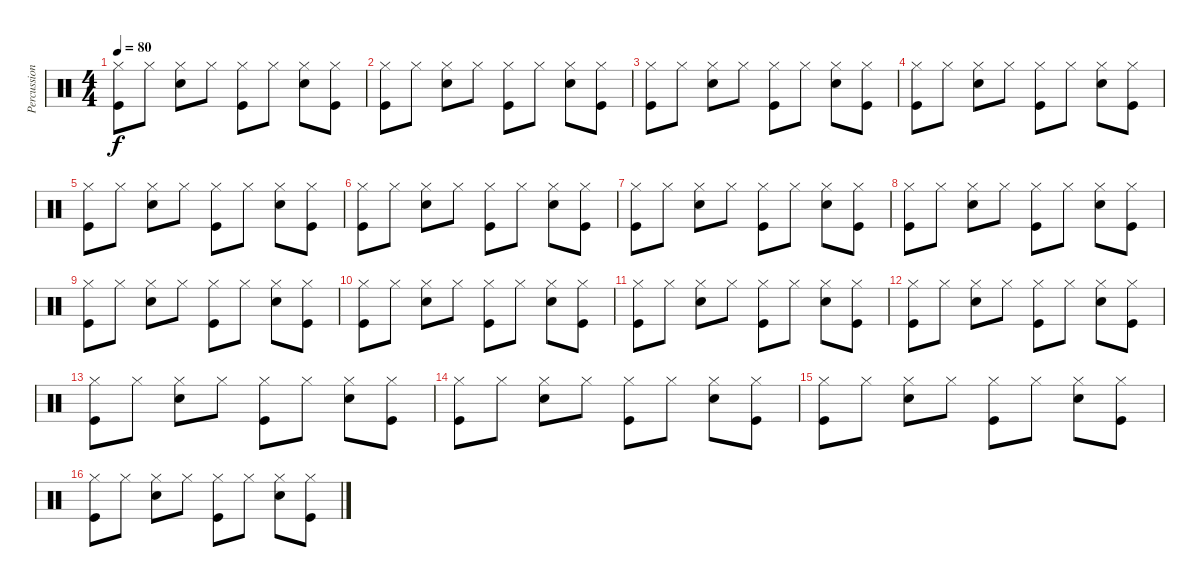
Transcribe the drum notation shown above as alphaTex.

\track ("Percussions" "Percussion") {instrument percussion}
\staff {score}
\articulation defaults
\ts (4 4)
\tempo 80
\clef neutral
\ks c
("Hi-Hat (closed)" "Kick (hit)").8{dy f} "Hi-Hat (closed)".8 ("Hi-Hat (closed)" "Snare (hit) 2").8 "Hi-Hat (closed)".8 ("Hi-Hat (closed)" "Kick (hit)").8 "Hi-Hat (closed)".8 ("Hi-Hat (closed)" "Snare (hit) 2").8 ("Hi-Hat (closed)" "Kick (hit)").8 |
("Hi-Hat (closed)" "Kick (hit)").8 "Hi-Hat (closed)".8 ("Hi-Hat (closed)" "Snare (hit) 2").8 "Hi-Hat (closed)".8 ("Hi-Hat (closed)" "Kick (hit)").8 "Hi-Hat (closed)".8 ("Hi-Hat (closed)" "Snare (hit) 2").8 ("Hi-Hat (closed)" "Kick (hit)").8 |
("Hi-Hat (closed)" "Kick (hit)").8 "Hi-Hat (closed)".8 ("Hi-Hat (closed)" "Snare (hit) 2").8 "Hi-Hat (closed)".8 ("Hi-Hat (closed)" "Kick (hit)").8 "Hi-Hat (closed)".8 ("Hi-Hat (closed)" "Snare (hit) 2").8 ("Hi-Hat (closed)" "Kick (hit)").8 |
("Hi-Hat (closed)" "Kick (hit)").8 "Hi-Hat (closed)".8 ("Hi-Hat (closed)" "Snare (hit) 2").8 "Hi-Hat (closed)".8 ("Hi-Hat (closed)" "Kick (hit)").8 "Hi-Hat (closed)".8 ("Hi-Hat (closed)" "Snare (hit) 2").8 ("Hi-Hat (closed)" "Kick (hit)").8 |
("Hi-Hat (closed)" "Kick (hit)").8 "Hi-Hat (closed)".8 ("Hi-Hat (closed)" "Snare (hit) 2").8 "Hi-Hat (closed)".8 ("Hi-Hat (closed)" "Kick (hit)").8 "Hi-Hat (closed)".8 ("Hi-Hat (closed)" "Snare (hit) 2").8 ("Hi-Hat (closed)" "Kick (hit)").8 |
("Hi-Hat (closed)" "Kick (hit)").8 "Hi-Hat (closed)".8 ("Hi-Hat (closed)" "Snare (hit) 2").8 "Hi-Hat (closed)".8 ("Hi-Hat (closed)" "Kick (hit)").8 "Hi-Hat (closed)".8 ("Hi-Hat (closed)" "Snare (hit) 2").8 ("Hi-Hat (closed)" "Kick (hit)").8 |
("Hi-Hat (closed)" "Kick (hit)").8 "Hi-Hat (closed)".8 ("Hi-Hat (closed)" "Snare (hit) 2").8 "Hi-Hat (closed)".8 ("Hi-Hat (closed)" "Kick (hit)").8 "Hi-Hat (closed)".8 ("Hi-Hat (closed)" "Snare (hit) 2").8 ("Hi-Hat (closed)" "Kick (hit)").8 |
("Hi-Hat (closed)" "Kick (hit)").8 "Hi-Hat (closed)".8 ("Hi-Hat (closed)" "Snare (hit) 2").8 "Hi-Hat (closed)".8 ("Hi-Hat (closed)" "Kick (hit)").8 "Hi-Hat (closed)".8 ("Hi-Hat (closed)" "Snare (hit) 2").8 ("Hi-Hat (closed)" "Kick (hit)").8 |
("Hi-Hat (closed)" "Kick (hit)").8 "Hi-Hat (closed)".8 ("Hi-Hat (closed)" "Snare (hit) 2").8 "Hi-Hat (closed)".8 ("Hi-Hat (closed)" "Kick (hit)").8 "Hi-Hat (closed)".8 ("Hi-Hat (closed)" "Snare (hit) 2").8 ("Hi-Hat (closed)" "Kick (hit)").8 |
("Hi-Hat (closed)" "Kick (hit)").8 "Hi-Hat (closed)".8 ("Hi-Hat (closed)" "Snare (hit) 2").8 "Hi-Hat (closed)".8 ("Hi-Hat (closed)" "Kick (hit)").8 "Hi-Hat (closed)".8 ("Hi-Hat (closed)" "Snare (hit) 2").8 ("Hi-Hat (closed)" "Kick (hit)").8 |
("Hi-Hat (closed)" "Kick (hit)").8 "Hi-Hat (closed)".8 ("Hi-Hat (closed)" "Snare (hit) 2").8 "Hi-Hat (closed)".8 ("Hi-Hat (closed)" "Kick (hit)").8 "Hi-Hat (closed)".8 ("Hi-Hat (closed)" "Snare (hit) 2").8 ("Hi-Hat (closed)" "Kick (hit)").8 |
("Hi-Hat (closed)" "Kick (hit)").8 "Hi-Hat (closed)".8 ("Hi-Hat (closed)" "Snare (hit) 2").8 "Hi-Hat (closed)".8 ("Hi-Hat (closed)" "Kick (hit)").8 "Hi-Hat (closed)".8 ("Hi-Hat (closed)" "Snare (hit) 2").8 ("Hi-Hat (closed)" "Kick (hit)").8 |
("Hi-Hat (closed)" "Kick (hit)").8 "Hi-Hat (closed)".8 ("Hi-Hat (closed)" "Snare (hit) 2").8 "Hi-Hat (closed)".8 ("Hi-Hat (closed)" "Kick (hit)").8 "Hi-Hat (closed)".8 ("Hi-Hat (closed)" "Snare (hit) 2").8 ("Hi-Hat (closed)" "Kick (hit)").8 |
("Hi-Hat (closed)" "Kick (hit)").8 "Hi-Hat (closed)".8 ("Hi-Hat (closed)" "Snare (hit) 2").8 "Hi-Hat (closed)".8 ("Hi-Hat (closed)" "Kick (hit)").8 "Hi-Hat (closed)".8 ("Hi-Hat (closed)" "Snare (hit) 2").8 ("Hi-Hat (closed)" "Kick (hit)").8 |
("Hi-Hat (closed)" "Kick (hit)").8 "Hi-Hat (closed)".8 ("Hi-Hat (closed)" "Snare (hit) 2").8 "Hi-Hat (closed)".8 ("Hi-Hat (closed)" "Kick (hit)").8 "Hi-Hat (closed)".8 ("Hi-Hat (closed)" "Snare (hit) 2").8 ("Hi-Hat (closed)" "Kick (hit)").8 |
("Hi-Hat (closed)" "Kick (hit)").8 "Hi-Hat (closed)".8 ("Hi-Hat (closed)" "Snare (hit) 2").8 "Hi-Hat (closed)".8 ("Hi-Hat (closed)" "Kick (hit)").8 "Hi-Hat (closed)".8 ("Hi-Hat (closed)" "Snare (hit) 2").8 ("Hi-Hat (closed)" "Kick (hit)").8
